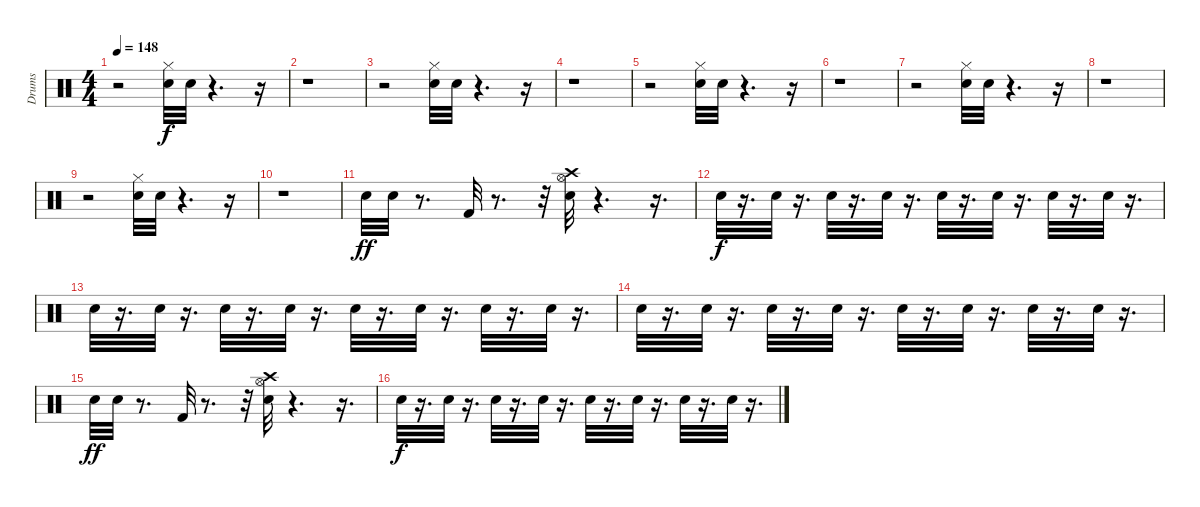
\track ("Drums" "Drums") {instrument percussion}
\staff {score}
\articulation defaults
\ts (4 4)
\tempo 148
\clef neutral
\ks c
r.2{dy f} ("Hi-Hat (closed)" "Electric Snare (hit)").32{volume 10} "Electric Snare (hit)".32 r.4{d} r.16 |
r.1 |
r.2 ("Hi-Hat (closed)" "Electric Snare (hit)").32{volume 9} "Electric Snare (hit)".32 r.4{d} r.16 |
r.1 |
r.2 ("Hi-Hat (closed)" "Electric Snare (hit)").32{volume 8} "Electric Snare (hit)".32 r.4{d} r.16 |
r.1 |
r.2 ("Hi-Hat (closed)" "Electric Snare (hit)").32{volume 7} "Electric Snare (hit)".32{volume 7} r.4{d} r.16 |
r.1 |
r.2 ("Hi-Hat (closed)" "Electric Snare (hit)").32{volume 6} "Electric Snare (hit)".32 r.4{d} r.16 |
r.1 |
"Electric Snare (hit)".32{dy ff volume 12} "Electric Snare (hit)".32 r.8{d} "Kick (hit) 2".32 r.8{d} r.32 ("Crash high (hit)" "Hi-Hat (open)" "Electric Snare (hit)").32 r.4{d} r.16{d} |
"Electric Snare (hit)".32{dy f volume 7} r.16{d} "Electric Snare (hit)".32{volume 8} r.16{d} "Electric Snare (hit)".32{volume 8} r.16{d} "Electric Snare (hit)".32{volume 8} r.16{d} "Electric Snare (hit)".32{volume 8} r.16{d} "Electric Snare (hit)".32{volume 8} r.16{d} "Electric Snare (hit)".32{volume 9} r.16{d} "Electric Snare (hit)".32{volume 9} r.16{d} |
"Electric Snare (hit)".32{volume 9} r.16{d} "Electric Snare (hit)".32{volume 9} r.16{d} "Electric Snare (hit)".32{volume 10} r.16{d} "Electric Snare (hit)".32{volume 10} r.16{d} "Electric Snare (hit)".32{volume 10} r.16{d} "Electric Snare (hit)".32{volume 10} r.16{d} "Electric Snare (hit)".32{volume 10} r.16{d} "Electric Snare (hit)".32{volume 10} r.16{d} |
"Electric Snare (hit)".32{volume 11} r.16{d} "Electric Snare (hit)".32{volume 11} r.16{d} "Electric Snare (hit)".32{volume 11} r.16{d} "Electric Snare (hit)".32{volume 11} r.16{d} "Electric Snare (hit)".32{volume 12} r.16{d} "Electric Snare (hit)".32{volume 12} r.16{d} "Electric Snare (hit)".32{volume 12} r.16{d} "Electric Snare (hit)".32{volume 12} r.16{d} |
"Electric Snare (hit)".32{dy ff volume 12} "Electric Snare (hit)".32 r.8{d} "Kick (hit) 2".32 r.8{d} r.32 ("Crash high (hit)" "Hi-Hat (open)" "Electric Snare (hit)").32 r.4{d} r.16{d} |
"Electric Snare (hit)".32{dy f volume 8} r.16{d} "Electric Snare (hit)".32{volume 8} r.16{d} "Electric Snare (hit)".32{volume 8} r.16{d} "Electric Snare (hit)".32{volume 8} r.16{d} "Electric Snare (hit)".32{volume 8} r.16{d} "Electric Snare (hit)".32{volume 8} r.16{d} "Electric Snare (hit)".32{volume 9} r.16{d} "Electric Snare (hit)".32{volume 9} r.16{d}
